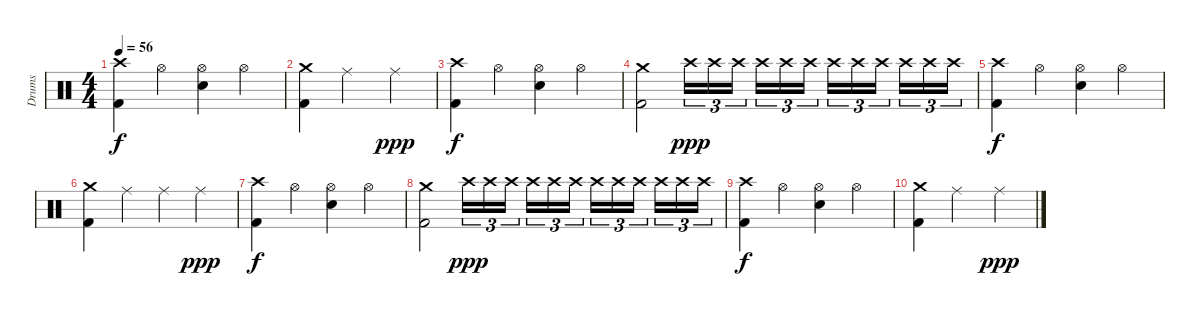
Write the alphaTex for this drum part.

\track ("Drums" "Drums") {instrument percussion}
\staff {score}
\articulation defaults
\ts (4 4)
\tempo 56
\clef neutral
\ks c
("Crash high (hit)" "Kick (hit) 2").4{dy f} "Hi-Hat (open)".4 ("Hi-Hat (open)" "Electric Snare (hit)").4 "Hi-Hat (open)".4 |
("Crash medium (hit)" "Kick (hit) 2").4 "Ride (middle)".2 "Ride (middle)".4{dy ppp} |
("Crash high (hit)" "Kick (hit) 2").4{dy f volume 2} "Hi-Hat (open)".4 ("Hi-Hat (open)" "Electric Snare (hit)").4 "Hi-Hat (open)".4 |
("Crash medium (hit)" "Kick (hit) 2").2 "Crash high (hit)".16{tu (3 2) dy ppp} "Crash high (hit)".16{tu (3 2)} "Crash high (hit)".16{tu (3 2) beam splitsecondary} "Crash high (hit)".16{tu (3 2)} "Crash high (hit)".16{tu (3 2)} "Crash high (hit)".16{tu (3 2)} "Crash high (hit)".16{tu (3 2)} "Crash high (hit)".16{tu (3 2)} "Crash high (hit)".16{tu (3 2) beam splitsecondary} "Crash high (hit)".16{tu (3 2)} "Crash high (hit)".16{tu (3 2)} "Crash high (hit)".16{tu (3 2)} |
("Crash high (hit)" "Kick (hit) 2").4{dy f} "Hi-Hat (open)".4 ("Hi-Hat (open)" "Electric Snare (hit)").4 "Hi-Hat (open)".4 |
("Crash medium (hit)" "Kick (hit) 2").4 "Ride (middle)".4 "Ride (middle)".4 "Ride (middle)".4{dy ppp} |
("Crash high (hit)" "Kick (hit) 2").4{dy f volume 0} "Hi-Hat (open)".4 ("Hi-Hat (open)" "Electric Snare (hit)").4 "Hi-Hat (open)".4 |
("Crash medium (hit)" "Kick (hit) 2").2 "Crash high (hit)".16{tu (3 2) dy ppp} "Crash high (hit)".16{tu (3 2)} "Crash high (hit)".16{tu (3 2) beam splitsecondary} "Crash high (hit)".16{tu (3 2)} "Crash high (hit)".16{tu (3 2)} "Crash high (hit)".16{tu (3 2)} "Crash high (hit)".16{tu (3 2)} "Crash high (hit)".16{tu (3 2)} "Crash high (hit)".16{tu (3 2) beam splitsecondary} "Crash high (hit)".16{tu (3 2)} "Crash high (hit)".16{tu (3 2)} "Crash high (hit)".16{tu (3 2)} |
("Crash high (hit)" "Kick (hit) 2").4{dy f} "Hi-Hat (open)".4 ("Hi-Hat (open)" "Electric Snare (hit)").4 "Hi-Hat (open)".4 |
("Crash medium (hit)" "Kick (hit) 2").4 "Ride (middle)".2 "Ride (middle)".4{dy ppp}
